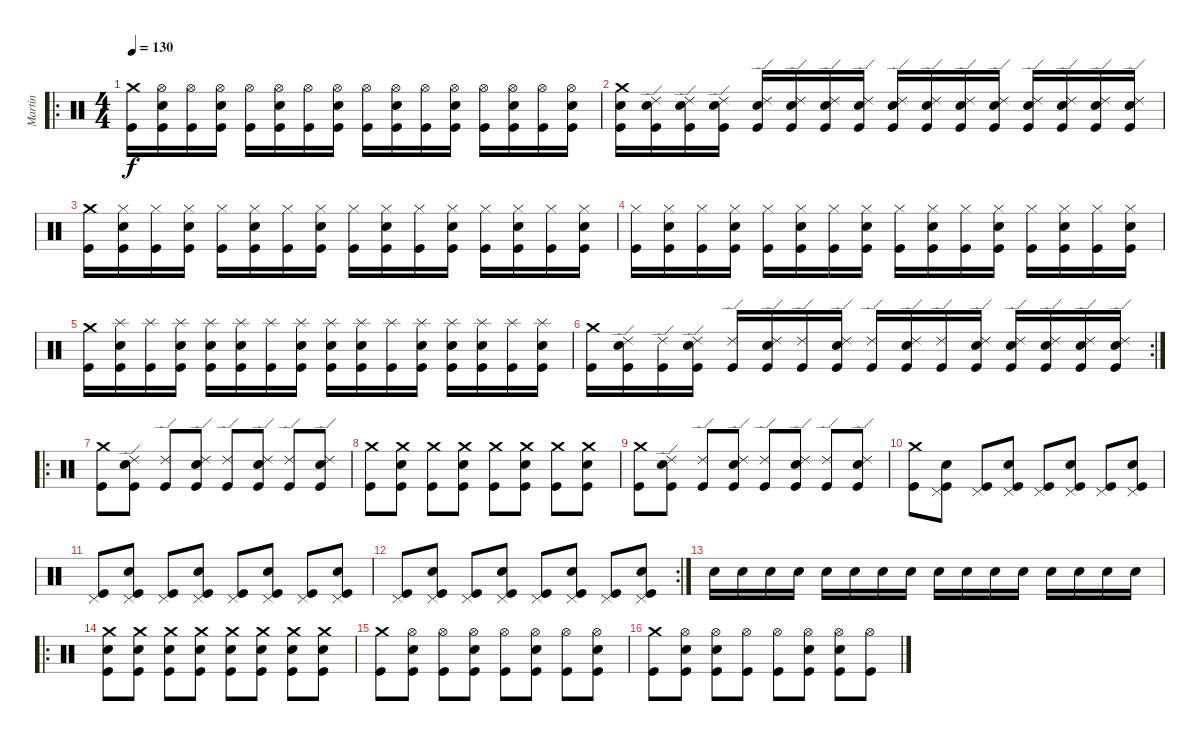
\track ("Martin" "Martin") {instrument percussion}
\staff {score}
\articulation defaults
\ro
\ts (4 4)
\tempo 130
\clef neutral
\ks c
("Crash medium (hit)" "Kick (hit)").16{dy f} ("Hi-Hat (open)" "Snare (hit) 2" "Kick (hit)").16 ("Hi-Hat (open)" "Kick (hit)").16 ("Hi-Hat (open)" "Snare (hit) 2" "Kick (hit)").16 ("Hi-Hat (open)" "Kick (hit)").16 ("Hi-Hat (open)" "Snare (hit) 2" "Kick (hit)").16 ("Hi-Hat (open)" "Kick (hit)").16 ("Hi-Hat (open)" "Snare (hit) 2" "Kick (hit)").16 ("Hi-Hat (open)" "Kick (hit)").16 ("Hi-Hat (open)" "Snare (hit) 2" "Kick (hit)").16 ("Hi-Hat (open)" "Kick (hit)").16 ("Hi-Hat (open)" "Snare (hit) 2" "Kick (hit)").16 ("Hi-Hat (open)" "Kick (hit)").16 ("Hi-Hat (open)" "Snare (hit) 2" "Kick (hit)").16 ("Hi-Hat (open)" "Kick (hit)").16 ("Hi-Hat (open)" "Snare (hit) 2" "Kick (hit)").16 |
("Crash medium (hit)" "Snare (hit) 2" "Kick (hit)").16 ("Ride (edge) 2" "Snare (hit) 2" "Kick (hit)").16 ("Ride (edge) 2" "Snare (hit) 2" "Kick (hit)").16 ("Ride (edge) 2" "Snare (hit) 2" "Kick (hit)").16 ("Ride (edge) 2" "Snare (hit) 2" "Kick (hit)").16 ("Ride (edge) 2" "Snare (hit) 2" "Kick (hit)").16 ("Ride (edge) 2" "Snare (hit) 2" "Kick (hit)").16 ("Ride (edge) 2" "Snare (hit) 2" "Kick (hit)").16 ("Ride (edge) 2" "Snare (hit) 2" "Kick (hit)").16 ("Ride (edge) 2" "Snare (hit) 2" "Kick (hit)").16 ("Ride (edge) 2" "Snare (hit) 2" "Kick (hit)").16 ("Ride (edge) 2" "Snare (hit) 2" "Kick (hit)").16 ("Ride (edge) 2" "Snare (hit) 2" "Kick (hit)").16 ("Ride (edge) 2" "Snare (hit) 2" "Kick (hit)").16 ("Ride (edge) 2" "Snare (hit) 2" "Kick (hit)").16 ("Ride (edge) 2" "Snare (hit) 2" "Kick (hit)").16 |
("Crash medium (hit)" "Kick (hit)").16 ("Hi-Hat (closed)" "Snare (hit) 2" "Kick (hit)").16 ("Hi-Hat (closed)" "Kick (hit)").16 ("Hi-Hat (closed)" "Snare (hit) 2" "Kick (hit)").16 ("Hi-Hat (closed)" "Kick (hit)").16 ("Hi-Hat (closed)" "Snare (hit) 2" "Kick (hit)").16 ("Hi-Hat (closed)" "Kick (hit)").16 ("Hi-Hat (closed)" "Snare (hit) 2" "Kick (hit)").16 ("Hi-Hat (closed)" "Kick (hit)").16 ("Hi-Hat (closed)" "Snare (hit) 2" "Kick (hit)").16 ("Hi-Hat (closed)" "Kick (hit)").16 ("Hi-Hat (closed)" "Snare (hit) 2" "Kick (hit)").16 ("Hi-Hat (closed)" "Kick (hit)").16 ("Hi-Hat (closed)" "Snare (hit) 2" "Kick (hit)").16 ("Hi-Hat (closed)" "Kick (hit)").16 ("Hi-Hat (closed)" "Snare (hit) 2" "Kick (hit)").16 |
("Hi-Hat (closed)" "Kick (hit)").16 ("Hi-Hat (closed)" "Snare (hit) 2" "Kick (hit)").16 ("Hi-Hat (closed)" "Kick (hit)").16 ("Hi-Hat (closed)" "Snare (hit) 2" "Kick (hit)").16 ("Hi-Hat (closed)" "Kick (hit)").16 ("Hi-Hat (closed)" "Snare (hit) 2" "Kick (hit)").16 ("Hi-Hat (closed)" "Kick (hit)").16 ("Hi-Hat (closed)" "Snare (hit) 2" "Kick (hit)").16 ("Hi-Hat (closed)" "Kick (hit)").16 ("Hi-Hat (closed)" "Snare (hit) 2" "Kick (hit)").16 ("Hi-Hat (closed)" "Kick (hit)").16 ("Hi-Hat (closed)" "Snare (hit) 2" "Kick (hit)").16 ("Hi-Hat (closed)" "Kick (hit)").16 ("Hi-Hat (closed)" "Snare (hit) 2" "Kick (hit)").16 ("Hi-Hat (closed)" "Kick (hit)").16 ("Hi-Hat (closed)" "Snare (hit) 2" "Kick (hit)").16 |
("Crash medium (hit)" "Kick (hit)").16 ("Splash (hit)" "Snare (hit) 2" "Kick (hit)").16 ("Splash (hit)" "Kick (hit)").16 ("Splash (hit)" "Snare (hit) 2" "Kick (hit)").16 ("Splash (hit)" "Snare (hit) 2" "Kick (hit)").16 ("Splash (hit)" "Snare (hit) 2" "Kick (hit)").16 ("Splash (hit)" "Kick (hit)").16 ("Splash (hit)" "Snare (hit) 2" "Kick (hit)").16 ("Splash (hit)" "Snare (hit) 2" "Kick (hit)").16 ("Splash (hit)" "Snare (hit) 2" "Kick (hit)").16 ("Splash (hit)" "Kick (hit)").16 ("Splash (hit)" "Snare (hit) 2" "Kick (hit)").16 ("Splash (hit)" "Snare (hit) 2" "Kick (hit)").16 ("Splash (hit)" "Snare (hit) 2" "Kick (hit)").16 ("Splash (hit)" "Kick (hit)").16 ("Splash (hit)" "Snare (hit) 2" "Kick (hit)").16 |
\rc 2
("Crash medium (hit)" "Kick (hit)").16 ("Ride (edge) 2" "Snare (hit) 2" "Kick (hit)").16 ("Ride (edge) 2" "Kick (hit)").16 ("Ride (edge) 2" "Snare (hit) 2" "Kick (hit)").16 ("Ride (edge) 2" "Kick (hit)").16 ("Ride (edge) 2" "Snare (hit) 2" "Kick (hit)").16 ("Ride (edge) 2" "Kick (hit)").16 ("Ride (edge) 2" "Snare (hit) 2" "Kick (hit)").16 ("Ride (edge) 2" "Kick (hit)").16 ("Ride (edge) 2" "Snare (hit) 2" "Kick (hit)").16 ("Ride (edge) 2" "Kick (hit)").16 ("Ride (edge) 2" "Snare (hit) 2" "Kick (hit)").16 ("Ride (edge) 2" "Snare (hit) 2" "Kick (hit)").16 ("Ride (edge) 2" "Snare (hit) 2" "Kick (hit)").16 ("Ride (edge) 2" "Snare (hit) 2" "Kick (hit)").16 ("Ride (edge) 2" "Snare (hit) 2" "Kick (hit)").16 |
\ro
("Crash medium (hit)" "Kick (hit)").8 ("Ride (edge) 2" "Snare (hit) 2" "Kick (hit)").8 ("Ride (edge) 2" "Kick (hit)").8 ("Ride (edge) 2" "Snare (hit) 2" "Kick (hit)").8 ("Ride (edge) 2" "Kick (hit)").8 ("Ride (edge) 2" "Snare (hit) 2" "Kick (hit)").8 ("Ride (edge) 2" "Kick (hit)").8 ("Ride (edge) 2" "Snare (hit) 2" "Kick (hit)").8 |
("Crash medium (hit)" "Kick (hit)").8 ("Crash medium (hit)" "Snare (hit) 2" "Kick (hit)").8 ("Crash medium (hit)" "Kick (hit)").8 ("Crash medium (hit)" "Snare (hit) 2" "Kick (hit)").8 ("Crash medium (hit)" "Kick (hit)").8 ("Crash medium (hit)" "Snare (hit) 2" "Kick (hit)").8 ("Crash medium (hit)" "Kick (hit)").8 ("Crash medium (hit)" "Snare (hit) 2" "Kick (hit)").8 |
("Crash medium (hit)" "Kick (hit)").8 ("Ride (edge) 2" "Snare (hit) 2" "Kick (hit)").8 ("Ride (edge) 2" "Kick (hit)").8 ("Ride (edge) 2" "Snare (hit) 2" "Kick (hit)").8 ("Ride (edge) 2" "Kick (hit)").8 ("Ride (edge) 2" "Snare (hit) 2" "Kick (hit)").8 ("Ride (edge) 2" "Kick (hit)").8 ("Ride (edge) 2" "Snare (hit) 2" "Kick (hit)").8 |
("Crash medium (hit)" "Kick (hit)").8 ("Pedal Hi-Hat (hit)" "Snare (hit) 2" "Kick (hit)").8 ("Pedal Hi-Hat (hit)" "Kick (hit)").8 ("Pedal Hi-Hat (hit)" "Snare (hit) 2" "Kick (hit)").8 ("Pedal Hi-Hat (hit)" "Kick (hit)").8 ("Pedal Hi-Hat (hit)" "Snare (hit) 2" "Kick (hit)").8 ("Pedal Hi-Hat (hit)" "Kick (hit)").8 ("Pedal Hi-Hat (hit)" "Snare (hit) 2" "Kick (hit)").8 |
("Pedal Hi-Hat (hit)" "Kick (hit)").8 ("Pedal Hi-Hat (hit)" "Snare (hit) 2" "Kick (hit)").8 ("Pedal Hi-Hat (hit)" "Kick (hit)").8 ("Pedal Hi-Hat (hit)" "Snare (hit) 2" "Kick (hit)").8 ("Pedal Hi-Hat (hit)" "Kick (hit)").8 ("Pedal Hi-Hat (hit)" "Snare (hit) 2" "Kick (hit)").8 ("Pedal Hi-Hat (hit)" "Kick (hit)").8 ("Pedal Hi-Hat (hit)" "Snare (hit) 2" "Kick (hit)").8 |
\rc 2
("Pedal Hi-Hat (hit)" "Kick (hit)").8 ("Pedal Hi-Hat (hit)" "Snare (hit) 2" "Kick (hit)").8 ("Pedal Hi-Hat (hit)" "Kick (hit)").8 ("Pedal Hi-Hat (hit)" "Snare (hit) 2" "Kick (hit)").8 ("Pedal Hi-Hat (hit)" "Kick (hit)").8 ("Pedal Hi-Hat (hit)" "Snare (hit) 2" "Kick (hit)").8 ("Pedal Hi-Hat (hit)" "Kick (hit)").8 ("Pedal Hi-Hat (hit)" "Snare (hit) 2" "Kick (hit)").8 |
"Snare (hit) 2".16 "Snare (hit) 2".16 "Snare (hit) 2".16 "Snare (hit) 2".16 "Snare (hit) 2".16 "Snare (hit) 2".16 "Snare (hit) 2".16 "Snare (hit) 2".16 "Snare (hit) 2".16 "Snare (hit) 2".16 "Snare (hit) 2".16 "Snare (hit) 2".16 "Snare (hit) 2".16 "Snare (hit) 2".16 "Snare (hit) 2".16 "Snare (hit) 2".16 |
\ro
("Crash medium (hit)" "Snare (hit) 2" "Kick (hit)").8 ("Crash medium (hit)" "Snare (hit) 2" "Kick (hit)").8 ("Crash medium (hit)" "Snare (hit) 2" "Kick (hit)").8 ("Crash medium (hit)" "Snare (hit) 2" "Kick (hit)").8 ("Crash medium (hit)" "Snare (hit) 2" "Kick (hit)").8 ("Crash medium (hit)" "Snare (hit) 2" "Kick (hit)").8 ("Crash medium (hit)" "Snare (hit) 2" "Kick (hit)").8 ("Crash medium (hit)" "Snare (hit) 2" "Kick (hit)").8 |
("Crash medium (hit)" "Kick (hit)").8 ("Hi-Hat (open)" "Snare (hit) 2" "Kick (hit)").8 ("Hi-Hat (open)" "Kick (hit)").8 ("Hi-Hat (open)" "Snare (hit) 2" "Kick (hit)").8 ("Hi-Hat (open)" "Kick (hit)").8 ("Hi-Hat (open)" "Snare (hit) 2" "Kick (hit)").8 ("Hi-Hat (open)" "Kick (hit)").8 ("Hi-Hat (open)" "Snare (hit) 2" "Kick (hit)").8 |
("Crash medium (hit)" "Kick (hit)").8 ("Hi-Hat (open)" "Snare (hit) 2" "Kick (hit)").8 ("Hi-Hat (open)" "Snare (hit) 2" "Kick (hit)").8 ("Hi-Hat (open)" "Kick (hit)").8 ("Hi-Hat (open)" "Kick (hit)").8 ("Hi-Hat (open)" "Snare (hit) 2" "Kick (hit)").8 ("Hi-Hat (open)" "Snare (hit) 2" "Kick (hit)").8 ("Hi-Hat (open)" "Kick (hit)").8
